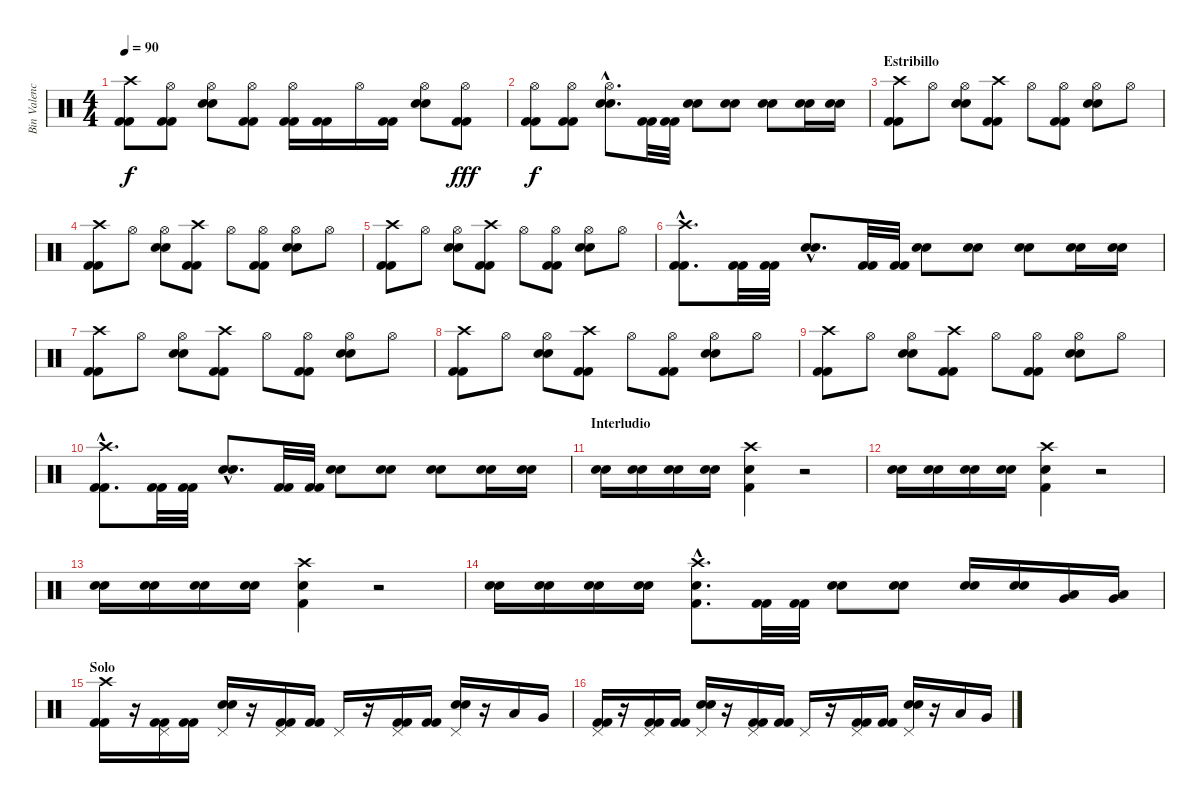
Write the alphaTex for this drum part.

\track ("Bin Valencia" "Bin Valenc") {instrument percussion}
\staff {score}
\articulation defaults
\ts (4 4)
\tempo 90
\clef neutral
\ks c
("Crash high (hit)" "Kick (hit) 2" "Kick (hit) 2").8{dy f} ("Hi-Hat (open)" "Kick (hit) 2" "Kick (hit) 2").8 ("Hi-Hat (open)" "Snare (hit) 2" "Snare (hit) 2").8 ("Hi-Hat (open)" "Kick (hit) 2" "Kick (hit) 2").8 ("Hi-Hat (open)" "Kick (hit) 2" "Kick (hit) 2").16 ("Kick (hit) 2" "Kick (hit) 2").16 "Hi-Hat (open)".16 ("Kick (hit) 2" "Kick (hit) 2").16 ("Hi-Hat (open)" "Snare (hit) 2" "Snare (hit) 2").8 ("Hi-Hat (open)" "Kick (hit) 2" "Kick (hit) 2").8{dy fff} |
("Hi-Hat (open)" "Kick (hit) 2" "Kick (hit) 2").8{dy f} ("Hi-Hat (open)" "Kick (hit) 2" "Kick (hit) 2").8 ("Hi-Hat (open)"{hac} "Snare (hit) 2"{hac} "Snare (hit) 2"{hac}).8{d} ("Kick (hit) 2" "Kick (hit) 2").32 ("Kick (hit) 2" "Kick (hit) 2").32 ("Snare (hit) 2" "Snare (hit) 2").8 ("Snare (hit) 2" "Snare (hit) 2").8 ("Snare (hit) 2" "Snare (hit) 2").8 ("Snare (hit) 2" "Snare (hit) 2").16 ("Snare (hit) 2" "Snare (hit) 2").16 |
\section ("" "Estribillo")
("Crash high (hit)" "Kick (hit) 2" "Kick (hit) 2").8 "Hi-Hat (open)".8 ("Hi-Hat (open)" "Snare (hit) 2" "Snare (hit) 2").8 ("Crash high (hit)" "Kick (hit) 2" "Kick (hit) 2").8 "Hi-Hat (open)".8 ("Hi-Hat (open)" "Kick (hit) 2" "Kick (hit) 2").8 ("Hi-Hat (open)" "Snare (hit) 2" "Snare (hit) 2").8 "Hi-Hat (open)".8 |
("Crash high (hit)" "Kick (hit) 2" "Kick (hit) 2").8 "Hi-Hat (open)".8 ("Hi-Hat (open)" "Snare (hit) 2" "Snare (hit) 2").8 ("Crash high (hit)" "Kick (hit) 2" "Kick (hit) 2").8 "Hi-Hat (open)".8 ("Hi-Hat (open)" "Kick (hit) 2" "Kick (hit) 2").8 ("Hi-Hat (open)" "Snare (hit) 2" "Snare (hit) 2").8 "Hi-Hat (open)".8 |
("Crash high (hit)" "Kick (hit) 2" "Kick (hit) 2").8 "Hi-Hat (open)".8 ("Hi-Hat (open)" "Snare (hit) 2" "Snare (hit) 2").8 ("Crash high (hit)" "Kick (hit) 2" "Kick (hit) 2").8 "Hi-Hat (open)".8 ("Hi-Hat (open)" "Kick (hit) 2" "Kick (hit) 2").8 ("Hi-Hat (open)" "Snare (hit) 2" "Snare (hit) 2").8 "Hi-Hat (open)".8 |
("Crash high (hit)"{hac} "Kick (hit) 2"{hac} "Kick (hit) 2"{hac}).8{d} ("Kick (hit) 2" "Kick (hit) 2").32 ("Kick (hit) 2" "Kick (hit) 2").32 ("Snare (hit) 2"{hac} "Snare (hit) 2"{hac}).8{d} ("Kick (hit) 2" "Kick (hit) 2").32 ("Kick (hit) 2" "Kick (hit) 2").32 ("Snare (hit) 2" "Snare (hit) 2").8 ("Snare (hit) 2" "Snare (hit) 2").8 ("Snare (hit) 2" "Snare (hit) 2").8 ("Snare (hit) 2" "Snare (hit) 2").16 ("Snare (hit) 2" "Snare (hit) 2").16 |
("Crash high (hit)" "Kick (hit) 2" "Kick (hit) 2").8 "Hi-Hat (open)".8 ("Hi-Hat (open)" "Snare (hit) 2" "Snare (hit) 2").8 ("Crash high (hit)" "Kick (hit) 2" "Kick (hit) 2").8 "Hi-Hat (open)".8 ("Hi-Hat (open)" "Kick (hit) 2" "Kick (hit) 2").8 ("Hi-Hat (open)" "Snare (hit) 2" "Snare (hit) 2").8 "Hi-Hat (open)".8 |
("Crash high (hit)" "Kick (hit) 2" "Kick (hit) 2").8 "Hi-Hat (open)".8 ("Hi-Hat (open)" "Snare (hit) 2" "Snare (hit) 2").8 ("Crash high (hit)" "Kick (hit) 2" "Kick (hit) 2").8 "Hi-Hat (open)".8 ("Hi-Hat (open)" "Kick (hit) 2" "Kick (hit) 2").8 ("Hi-Hat (open)" "Snare (hit) 2" "Snare (hit) 2").8 "Hi-Hat (open)".8 |
("Crash high (hit)" "Kick (hit) 2" "Kick (hit) 2").8 "Hi-Hat (open)".8 ("Hi-Hat (open)" "Snare (hit) 2" "Snare (hit) 2").8 ("Crash high (hit)" "Kick (hit) 2" "Kick (hit) 2").8 "Hi-Hat (open)".8 ("Hi-Hat (open)" "Kick (hit) 2" "Kick (hit) 2").8 ("Hi-Hat (open)" "Snare (hit) 2" "Snare (hit) 2").8 "Hi-Hat (open)".8 |
("Crash high (hit)"{hac} "Kick (hit) 2"{hac} "Kick (hit) 2"{hac}).8{d} ("Kick (hit) 2" "Kick (hit) 2").32 ("Kick (hit) 2" "Kick (hit) 2").32 ("Snare (hit) 2"{hac} "Snare (hit) 2"{hac}).8{d} ("Kick (hit) 2" "Kick (hit) 2").32 ("Kick (hit) 2" "Kick (hit) 2").32 ("Snare (hit) 2" "Snare (hit) 2").8 ("Snare (hit) 2" "Snare (hit) 2").8 ("Snare (hit) 2" "Snare (hit) 2").8 ("Snare (hit) 2" "Snare (hit) 2").16 ("Snare (hit) 2" "Snare (hit) 2").16 |
\section ("" "Interludio")
("Snare (hit) 2" "Snare (hit) 2").16 ("Snare (hit) 2" "Snare (hit) 2").16 ("Snare (hit) 2" "Snare (hit) 2").16 ("Snare (hit) 2" "Snare (hit) 2").16 ("Crash high (hit)" "Snare (hit) 2" "Kick (hit) 2").4 r.2 |
("Snare (hit) 2" "Snare (hit) 2").16 ("Snare (hit) 2" "Snare (hit) 2").16 ("Snare (hit) 2" "Snare (hit) 2").16 ("Snare (hit) 2" "Snare (hit) 2").16 ("Crash high (hit)" "Snare (hit) 2" "Kick (hit) 2").4 r.2 |
("Snare (hit) 2" "Snare (hit) 2").16 ("Snare (hit) 2" "Snare (hit) 2").16 ("Snare (hit) 2" "Snare (hit) 2").16 ("Snare (hit) 2" "Snare (hit) 2").16 ("Crash high (hit)" "Snare (hit) 2" "Kick (hit) 2").4 r.2 |
("Snare (hit) 2" "Snare (hit) 2").16 ("Snare (hit) 2" "Snare (hit) 2").16 ("Snare (hit) 2" "Snare (hit) 2").16 ("Snare (hit) 2" "Snare (hit) 2").16 ("Crash high (hit)"{hac} "Snare (hit) 2"{hac} "Kick (hit) 2"{hac}).8{d} ("Kick (hit) 2" "Kick (hit) 2").32 ("Kick (hit) 2" "Kick (hit) 2").32 ("Snare (hit) 2" "Snare (hit) 2").8 ("Snare (hit) 2" "Snare (hit) 2").8 ("Snare (hit) 2" "Snare (hit) 2").16 ("Snare (hit) 2" "Snare (hit) 2").16 ("Low Floor Tom (hit)" "Very Low Tom (hit)").16 ("Low Floor Tom (hit)" "Very Low Tom (hit)").16 |
\section ("" "Solo")
("Crash high (hit)" "Kick (hit) 2" "Kick (hit) 2").16 r.16 ("Pedal Hi-Hat (hit)" "Kick (hit) 2" "Kick (hit) 2").16 ("Kick (hit) 2" "Kick (hit) 2").16 ("Pedal Hi-Hat (hit)" "Electric Snare (hit)" "Electric Snare (hit)").16 r.16 ("Pedal Hi-Hat (hit)" "Kick (hit) 2" "Kick (hit) 2").16 ("Kick (hit) 2" "Kick (hit) 2").16 "Pedal Hi-Hat (hit)".16 r.16 ("Pedal Hi-Hat (hit)" "Kick (hit) 2" "Kick (hit) 2").16 ("Kick (hit) 2" "Kick (hit) 2").16 ("Pedal Hi-Hat (hit)" "Electric Snare (hit)" "Electric Snare (hit)").16 r.16 "Low Tom (hit)".16 "Very Low Tom (hit)".16 |
("Pedal Hi-Hat (hit)" "Kick (hit) 2" "Kick (hit) 2").16 r.16 ("Pedal Hi-Hat (hit)" "Kick (hit) 2" "Kick (hit) 2").16 ("Kick (hit) 2" "Kick (hit) 2").16 ("Pedal Hi-Hat (hit)" "Electric Snare (hit)" "Electric Snare (hit)").16 r.16 ("Pedal Hi-Hat (hit)" "Kick (hit) 2" "Kick (hit) 2").16 ("Kick (hit) 2" "Kick (hit) 2").16 "Pedal Hi-Hat (hit)".16 r.16 ("Pedal Hi-Hat (hit)" "Kick (hit) 2" "Kick (hit) 2").16 ("Kick (hit) 2" "Kick (hit) 2").16 ("Pedal Hi-Hat (hit)" "Electric Snare (hit)" "Electric Snare (hit)").16 r.16 "Low Tom (hit)".16 "Very Low Tom (hit)".16
